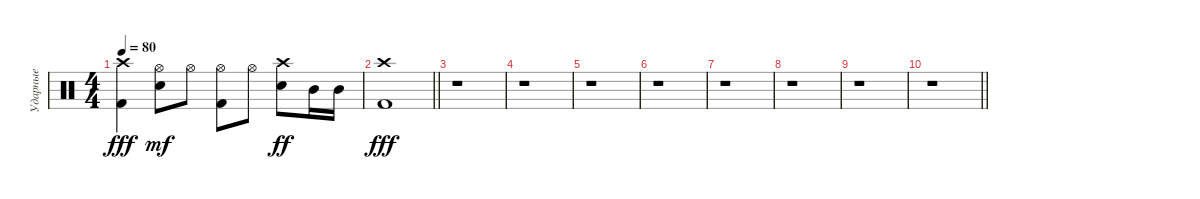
\track ("Ударные" "Ударные") {instrument percussion}
\staff {score}
\articulation defaults
\ts (4 4)
\tempo 80
\clef neutral
\ks c
("Kick (hit) 2" "Crash high (hit)").4{dy fff} ("Snare (hit) 2" "Hi-Hat (open)").8{dy mf} "Hi-Hat (open)".8 ("Kick (hit) 2" "Hi-Hat (open)").8 "Hi-Hat (open)".8 ("Snare (hit) 2" "Crash high (hit)").8{dy ff} "Mid Tom (hit)".16 "Mid Tom (hit)".16 |
\barLineRight lightlight
("Kick (hit) 2" "Crash high (hit)").1{dy fff} |
r.1 |
r.1 |
r.1 |
r.1 |
r.1 |
r.1 |
r.1 |
\barLineRight lightlight
r.1
